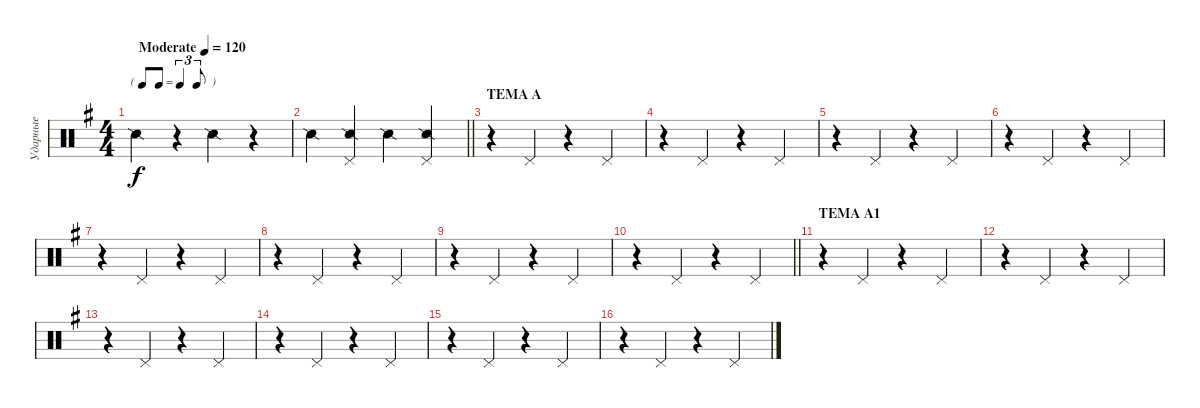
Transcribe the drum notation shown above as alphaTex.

\track ("Ударные" "Ударные") {instrument percussion}
\staff {score}
\articulation defaults
\ts (4 4)
\tf triplet8th
\tempo (120 "Moderate")
\clef neutral
\ks g "Snare (side stick) 2".4{dy f}
r.4 "Snare (side stick) 2".4 r.4 |
\barLineRight lightlight "Snare (side stick) 2".4
("Snare (side stick) 2" "Pedal Hi-Hat (hit)").4 "Snare (side stick) 2".4 ("Snare (side stick) 2" "Pedal Hi-Hat (hit)").4 |
\section ("" "TEMA A")
r.4 "Pedal Hi-Hat (hit)".4 r.4 "Pedal Hi-Hat (hit)".4 |
r.4 "Pedal Hi-Hat (hit)".4 r.4 "Pedal Hi-Hat (hit)".4 |
r.4 "Pedal Hi-Hat (hit)".4 r.4 "Pedal Hi-Hat (hit)".4 |
r.4 "Pedal Hi-Hat (hit)".4 r.4 "Pedal Hi-Hat (hit)".4 |
r.4 "Pedal Hi-Hat (hit)".4 r.4 "Pedal Hi-Hat (hit)".4 |
r.4 "Pedal Hi-Hat (hit)".4 r.4 "Pedal Hi-Hat (hit)".4 |
r.4 "Pedal Hi-Hat (hit)".4 r.4 "Pedal Hi-Hat (hit)".4 |
\barLineRight lightlight
r.4 "Pedal Hi-Hat (hit)".4 r.4 "Pedal Hi-Hat (hit)".4 |
\section ("" "TEMA A1")
r.4 "Pedal Hi-Hat (hit)".4 r.4 "Pedal Hi-Hat (hit)".4 |
r.4 "Pedal Hi-Hat (hit)".4 r.4 "Pedal Hi-Hat (hit)".4 |
r.4 "Pedal Hi-Hat (hit)".4 r.4 "Pedal Hi-Hat (hit)".4 |
r.4 "Pedal Hi-Hat (hit)".4 r.4 "Pedal Hi-Hat (hit)".4 |
r.4 "Pedal Hi-Hat (hit)".4 r.4 "Pedal Hi-Hat (hit)".4 |
r.4 "Pedal Hi-Hat (hit)".4 r.4 "Pedal Hi-Hat (hit)".4
